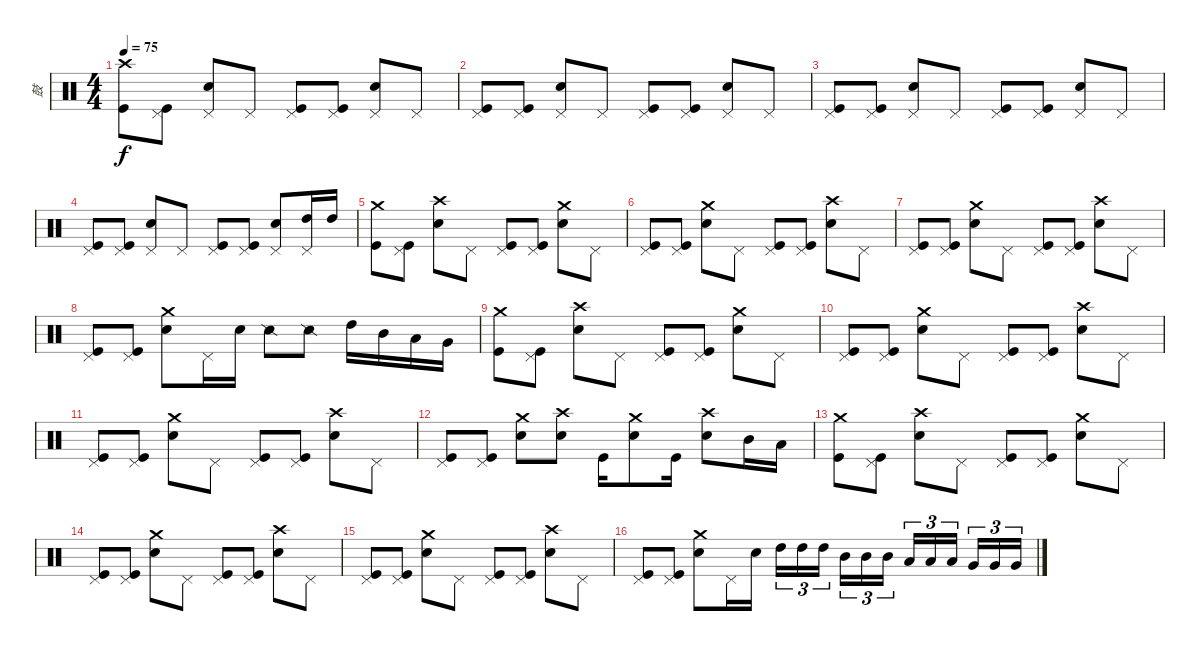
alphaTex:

\track ("鼓" "鼓") {instrument percussion}
\staff {score}
\articulation defaults
\ts (4 4)
\tempo 75
\clef neutral
\ks c
("Kick (hit)" "Crash high (hit)").8{dy f} ("Kick (hit)" "Pedal Hi-Hat (hit)").8 ("Snare (hit) 2" "Pedal Hi-Hat (hit)").8 "Pedal Hi-Hat (hit)".8 ("Kick (hit)" "Pedal Hi-Hat (hit)").8 ("Kick (hit)" "Pedal Hi-Hat (hit)").8 ("Snare (hit) 2" "Pedal Hi-Hat (hit)").8 "Pedal Hi-Hat (hit)".8 |
("Kick (hit)" "Pedal Hi-Hat (hit)").8 ("Kick (hit)" "Pedal Hi-Hat (hit)").8 ("Snare (hit) 2" "Pedal Hi-Hat (hit)").8 "Pedal Hi-Hat (hit)".8 ("Kick (hit)" "Pedal Hi-Hat (hit)").8 ("Kick (hit)" "Pedal Hi-Hat (hit)").8 ("Snare (hit) 2" "Pedal Hi-Hat (hit)").8 "Pedal Hi-Hat (hit)".8 |
("Kick (hit)" "Pedal Hi-Hat (hit)").8 ("Kick (hit)" "Pedal Hi-Hat (hit)").8 ("Snare (hit) 2" "Pedal Hi-Hat (hit)").8 "Pedal Hi-Hat (hit)".8 ("Kick (hit)" "Pedal Hi-Hat (hit)").8 ("Kick (hit)" "Pedal Hi-Hat (hit)").8 ("Snare (hit) 2" "Pedal Hi-Hat (hit)").8 "Pedal Hi-Hat (hit)".8 |
("Kick (hit)" "Pedal Hi-Hat (hit)").8 ("Kick (hit)" "Pedal Hi-Hat (hit)").8 ("Snare (hit) 2" "Pedal Hi-Hat (hit)").8 "Pedal Hi-Hat (hit)".8 ("Kick (hit)" "Pedal Hi-Hat (hit)").8 ("Kick (hit)" "Pedal Hi-Hat (hit)").8 ("Snare (hit) 2" "Pedal Hi-Hat (hit)").8 ("High Tom (hit)" "Pedal Hi-Hat (hit)").16 "High Tom (hit)".16 |
("Kick (hit)" "Crash medium (hit)").8 ("Kick (hit)" "Pedal Hi-Hat (hit)").8 ("Snare (hit) 2" "Crash high (hit)").8 "Pedal Hi-Hat (hit)".8 ("Kick (hit)" "Pedal Hi-Hat (hit)").8 ("Kick (hit)" "Pedal Hi-Hat (hit)").8 ("Snare (hit) 2" "Crash medium (hit)").8 "Pedal Hi-Hat (hit)".8 |
("Kick (hit)" "Pedal Hi-Hat (hit)").8 ("Kick (hit)" "Pedal Hi-Hat (hit)").8 ("Snare (hit) 2" "Crash medium (hit)").8 "Pedal Hi-Hat (hit)".8 ("Kick (hit)" "Pedal Hi-Hat (hit)").8 ("Kick (hit)" "Pedal Hi-Hat (hit)").8 ("Snare (hit) 2" "Crash high (hit)").8 "Pedal Hi-Hat (hit)".8 |
("Kick (hit)" "Pedal Hi-Hat (hit)").8 ("Kick (hit)" "Pedal Hi-Hat (hit)").8 ("Snare (hit) 2" "Crash medium (hit)").8 "Pedal Hi-Hat (hit)".8 ("Kick (hit)" "Pedal Hi-Hat (hit)").8 ("Kick (hit)" "Pedal Hi-Hat (hit)").8 ("Snare (hit) 2" "Crash high (hit)").8 "Pedal Hi-Hat (hit)".8 |
("Kick (hit)" "Pedal Hi-Hat (hit)").8 ("Kick (hit)" "Pedal Hi-Hat (hit)").8 ("Snare (hit) 2" "Crash medium (hit)").8 "Pedal Hi-Hat (hit)".16 "Snare (hit) 2".16 "Snare (side stick) 2".8 "Snare (side stick) 2".8 "High Tom (hit)".16 "Mid Tom (hit)".16 "Low Tom (hit)".16 "Very Low Tom (hit)".16 |
("Kick (hit)" "Crash medium (hit)").8 ("Kick (hit)" "Pedal Hi-Hat (hit)").8 ("Snare (hit) 2" "Crash high (hit)").8 "Pedal Hi-Hat (hit)".8 ("Kick (hit)" "Pedal Hi-Hat (hit)").8 ("Kick (hit)" "Pedal Hi-Hat (hit)").8 ("Snare (hit) 2" "Crash medium (hit)").8 "Pedal Hi-Hat (hit)".8 |
("Kick (hit)" "Pedal Hi-Hat (hit)").8 ("Kick (hit)" "Pedal Hi-Hat (hit)").8 ("Snare (hit) 2" "Crash medium (hit)").8 "Pedal Hi-Hat (hit)".8 ("Kick (hit)" "Pedal Hi-Hat (hit)").8 ("Kick (hit)" "Pedal Hi-Hat (hit)").8 ("Snare (hit) 2" "Crash high (hit)").8 "Pedal Hi-Hat (hit)".8 |
("Kick (hit)" "Pedal Hi-Hat (hit)").8 ("Kick (hit)" "Pedal Hi-Hat (hit)").8 ("Snare (hit) 2" "Crash medium (hit)").8 "Pedal Hi-Hat (hit)".8 ("Kick (hit)" "Pedal Hi-Hat (hit)").8 ("Kick (hit)" "Pedal Hi-Hat (hit)").8 ("Snare (hit) 2" "Crash high (hit)").8 "Pedal Hi-Hat (hit)".8 |
("Kick (hit)" "Pedal Hi-Hat (hit)").8 ("Kick (hit)" "Pedal Hi-Hat (hit)").8 ("Snare (hit) 2" "Crash medium (hit)").8 ("Snare (hit) 2" "Crash high (hit)").8 "Kick (hit)".16 ("Snare (hit) 2" "Crash medium (hit)").8 "Kick (hit)".16 ("Snare (hit) 2" "Crash high (hit)").8 "Mid Tom (hit)".16 "Low Tom (hit)".16 |
("Kick (hit)" "Crash medium (hit)").8 ("Kick (hit)" "Pedal Hi-Hat (hit)").8 ("Snare (hit) 2" "Crash high (hit)").8 "Pedal Hi-Hat (hit)".8 ("Kick (hit)" "Pedal Hi-Hat (hit)").8 ("Kick (hit)" "Pedal Hi-Hat (hit)").8 ("Snare (hit) 2" "Crash medium (hit)").8 "Pedal Hi-Hat (hit)".8 |
("Kick (hit)" "Pedal Hi-Hat (hit)").8 ("Kick (hit)" "Pedal Hi-Hat (hit)").8 ("Snare (hit) 2" "Crash medium (hit)").8 "Pedal Hi-Hat (hit)".8 ("Kick (hit)" "Pedal Hi-Hat (hit)").8 ("Kick (hit)" "Pedal Hi-Hat (hit)").8 ("Snare (hit) 2" "Crash high (hit)").8 "Pedal Hi-Hat (hit)".8 |
("Kick (hit)" "Pedal Hi-Hat (hit)").8 ("Kick (hit)" "Pedal Hi-Hat (hit)").8 ("Snare (hit) 2" "Crash medium (hit)").8 "Pedal Hi-Hat (hit)".8 ("Kick (hit)" "Pedal Hi-Hat (hit)").8 ("Kick (hit)" "Pedal Hi-Hat (hit)").8 ("Snare (hit) 2" "Crash high (hit)").8 "Pedal Hi-Hat (hit)".8 |
("Kick (hit)" "Pedal Hi-Hat (hit)").8 ("Kick (hit)" "Pedal Hi-Hat (hit)").8 ("Snare (hit) 2" "Crash medium (hit)").8 "Pedal Hi-Hat (hit)".16 "Snare (hit) 2".16 "High Tom (hit)".16{tu (3 2)} "High Tom (hit)".16{tu (3 2)} "High Tom (hit)".16{tu (3 2)} "Mid Tom (hit)".16{tu (3 2)} "Mid Tom (hit)".16{tu (3 2)} "Mid Tom (hit)".16{tu (3 2)} "Low Tom (hit)".16{tu (3 2)} "Low Tom (hit)".16{tu (3 2)} "Low Tom (hit)".16{tu (3 2)} "Very Low Tom (hit)".16{tu (3 2)} "Very Low Tom (hit)".16{tu (3 2)} "Very Low Tom (hit)".16{tu (3 2)}
